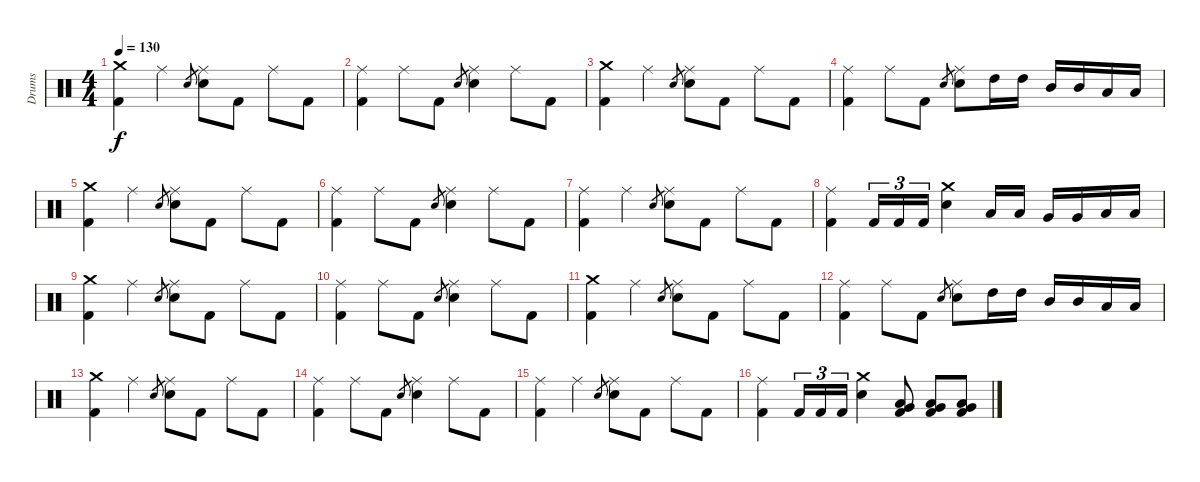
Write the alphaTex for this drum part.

\track ("Drums" "Drums") {instrument percussion}
\staff {score}
\articulation defaults
\ts (4 4)
\tempo 130
\clef neutral
\ks c
("Kick (hit) 2" "Crash medium (hit)").4{dy f volume 10} "Ride (middle)".4 "Electric Snare (hit)".8{gr} ("Electric Snare (hit)" "Ride (middle)").8 "Kick (hit) 2".8 "Ride (middle)".8 "Kick (hit) 2".8 |
("Kick (hit) 2" "Ride (middle)").4 "Ride (middle)".8 "Kick (hit) 2".8 "Electric Snare (hit)".8{gr} ("Electric Snare (hit)" "Ride (middle)").4 "Ride (middle)".8 "Kick (hit) 2".8 |
("Kick (hit) 2" "Crash medium (hit)").4 "Ride (middle)".4 "Electric Snare (hit)".8{gr} ("Electric Snare (hit)" "Ride (middle)").8 "Kick (hit) 2".8 "Ride (middle)".8 "Kick (hit) 2".8 |
("Kick (hit) 2" "Ride (middle)").4 "Ride (middle)".8 "Kick (hit) 2".8 "Electric Snare (hit)".8{gr} ("Electric Snare (hit)" "Ride (middle)").8 "High Tom (hit)".16 "High Tom (hit)".16 "Mid Tom (hit)".16 "Mid Tom (hit)".16 "Low Tom (hit)".16 "Low Tom (hit)".16 |
("Kick (hit) 2" "Crash medium (hit)").4 "Ride (middle)".4 "Electric Snare (hit)".8{gr} ("Electric Snare (hit)" "Ride (middle)").8 "Kick (hit) 2".8 "Ride (middle)".8 "Kick (hit) 2".8 |
("Kick (hit) 2" "Ride (middle)").4 "Ride (middle)".8 "Kick (hit) 2".8 "Electric Snare (hit)".8{gr} ("Electric Snare (hit)" "Ride (middle)").4 "Ride (middle)".8 "Kick (hit) 2".8 |
("Kick (hit) 2" "Ride (middle)").4 "Ride (middle)".4 "Electric Snare (hit)".8{gr} ("Electric Snare (hit)" "Ride (middle)").8 "Kick (hit) 2".8 "Ride (middle)".8 "Kick (hit) 2".8 |
("Kick (hit) 2" "Ride (middle)").4 "Kick (hit) 2".16{tu (3 2)} "Kick (hit) 2".16{tu (3 2)} "Kick (hit) 2".16{tu (3 2)} ("Electric Snare (hit)" "Crash medium (hit)").4 "Low Tom (hit)".16 "Low Tom (hit)".16 "Very Low Tom (hit)".16 "Very Low Tom (hit)".16 "Low Floor Tom (hit)".16 "Low Floor Tom (hit)".16 |
("Kick (hit) 2" "Crash medium (hit)").4{volume 10} "Ride (middle)".4 "Electric Snare (hit)".8{gr} ("Electric Snare (hit)" "Ride (middle)").8 "Kick (hit) 2".8 "Ride (middle)".8 "Kick (hit) 2".8 |
("Kick (hit) 2" "Ride (middle)").4 "Ride (middle)".8 "Kick (hit) 2".8 "Electric Snare (hit)".8{gr} ("Electric Snare (hit)" "Ride (middle)").4 "Ride (middle)".8 "Kick (hit) 2".8 |
("Kick (hit) 2" "Crash medium (hit)").4 "Ride (middle)".4 "Electric Snare (hit)".8{gr} ("Electric Snare (hit)" "Ride (middle)").8 "Kick (hit) 2".8 "Ride (middle)".8 "Kick (hit) 2".8 |
("Kick (hit) 2" "Ride (middle)").4 "Ride (middle)".8 "Kick (hit) 2".8 "Electric Snare (hit)".8{gr} ("Electric Snare (hit)" "Ride (middle)").8 "High Tom (hit)".16 "High Tom (hit)".16 "Mid Tom (hit)".16 "Mid Tom (hit)".16 "Low Tom (hit)".16 "Low Tom (hit)".16 |
("Kick (hit) 2" "Crash medium (hit)").4 "Ride (middle)".4 "Electric Snare (hit)".8{gr} ("Electric Snare (hit)" "Ride (middle)").8 "Kick (hit) 2".8 "Ride (middle)".8 "Kick (hit) 2".8 |
("Kick (hit) 2" "Ride (middle)").4 "Ride (middle)".8 "Kick (hit) 2".8 "Electric Snare (hit)".8{gr} ("Electric Snare (hit)" "Ride (middle)").4 "Ride (middle)".8 "Kick (hit) 2".8 |
("Kick (hit) 2" "Ride (middle)").4 "Ride (middle)".4 "Electric Snare (hit)".8{gr} ("Electric Snare (hit)" "Ride (middle)").8 "Kick (hit) 2".8 "Ride (middle)".8 "Kick (hit) 2".8 |
("Kick (hit) 2" "Ride (middle)").4 "Kick (hit) 2".16{tu (3 2)} "Kick (hit) 2".16{tu (3 2)} "Kick (hit) 2".16{tu (3 2)} ("Electric Snare (hit)" "Crash medium (hit)").4 ("Kick (hit) 2" "Low Tom (hit)" "Very Low Tom (hit)").8{volume 16} ("Kick (hit) 2" "Low Tom (hit)" "Very Low Tom (hit)").8 ("Kick (hit) 2" "Low Tom (hit)" "Very Low Tom (hit)").8
